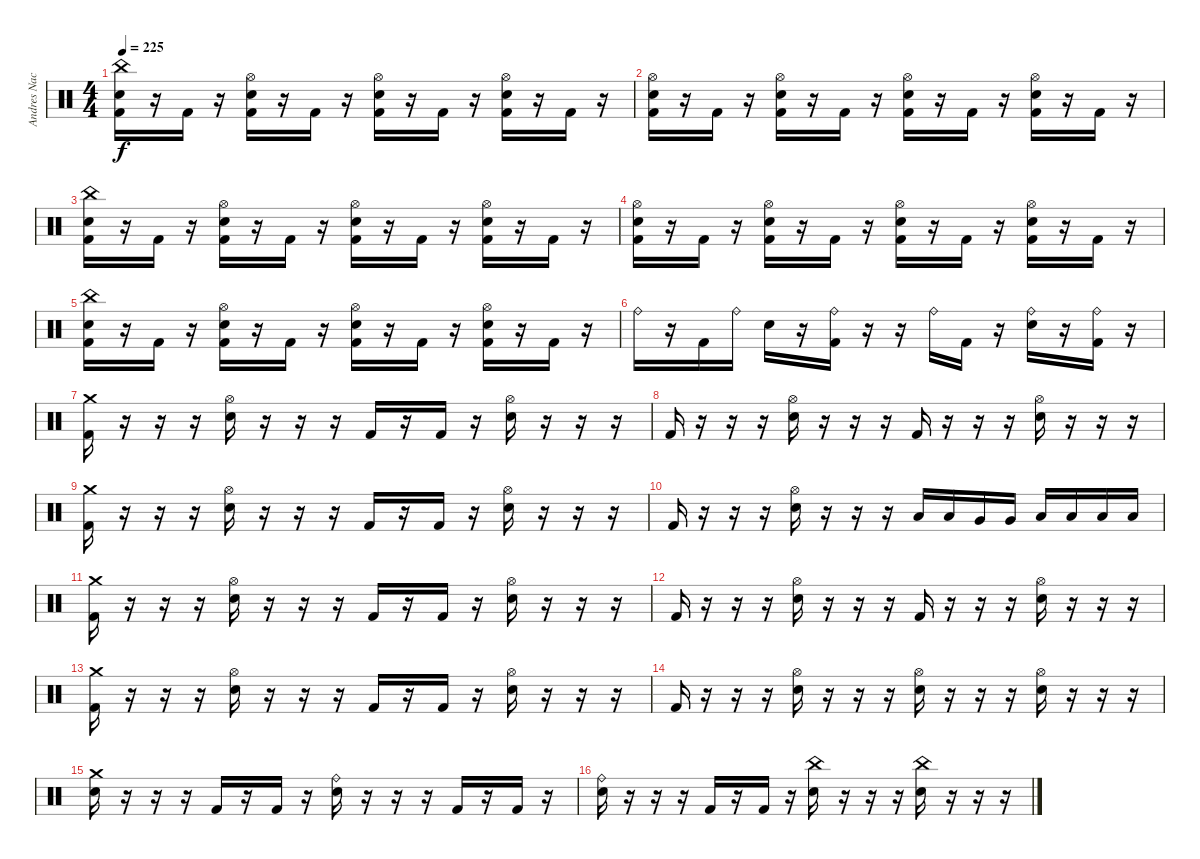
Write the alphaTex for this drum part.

\track ("Andres Nacrur" "Andres Nac") {instrument percussion}
\staff {score}
\articulation defaults
\ts (4 4)
\tempo 225
\clef neutral
\ks c
("China (hit)" "Snare (hit) 2" "Kick (hit) 2").16{dy f} r.16 "Kick (hit) 2".16 r.16 ("Hi-Hat (open)" "Snare (hit) 2" "Kick (hit) 2").16 r.16 "Kick (hit) 2".16 r.16 ("Hi-Hat (open)" "Snare (hit) 2" "Kick (hit) 2").16 r.16 "Kick (hit) 2".16 r.16 ("Hi-Hat (open)" "Snare (hit) 2" "Kick (hit) 2").16 r.16 "Kick (hit) 2".16 r.16 |
("Hi-Hat (open)" "Snare (hit) 2" "Kick (hit) 2").16 r.16 "Kick (hit) 2".16 r.16 ("Hi-Hat (open)" "Snare (hit) 2" "Kick (hit) 2").16 r.16 "Kick (hit) 2".16 r.16 ("Hi-Hat (open)" "Snare (hit) 2" "Kick (hit) 2").16 r.16 "Kick (hit) 2".16 r.16 ("Hi-Hat (open)" "Snare (hit) 2" "Kick (hit) 2").16 r.16 "Kick (hit) 2".16 r.16 |
("China (hit)" "Snare (hit) 2" "Kick (hit) 2").16 r.16 "Kick (hit) 2".16 r.16 ("Hi-Hat (open)" "Snare (hit) 2" "Kick (hit) 2").16 r.16 "Kick (hit) 2".16 r.16 ("Hi-Hat (open)" "Snare (hit) 2" "Kick (hit) 2").16 r.16 "Kick (hit) 2".16 r.16 ("Hi-Hat (open)" "Snare (hit) 2" "Kick (hit) 2").16 r.16 "Kick (hit) 2".16 r.16 |
("Hi-Hat (open)" "Snare (hit) 2" "Kick (hit) 2").16 r.16 "Kick (hit) 2".16 r.16 ("Hi-Hat (open)" "Snare (hit) 2" "Kick (hit) 2").16 r.16 "Kick (hit) 2".16 r.16 ("Hi-Hat (open)" "Snare (hit) 2" "Kick (hit) 2").16 r.16 "Kick (hit) 2".16 r.16 ("Hi-Hat (open)" "Snare (hit) 2" "Kick (hit) 2").16 r.16 "Kick (hit) 2".16 r.16 |
("China (hit)" "Snare (hit) 2" "Kick (hit) 2").16 r.16 "Kick (hit) 2".16 r.16 ("Hi-Hat (open)" "Snare (hit) 2" "Kick (hit) 2").16 r.16 "Kick (hit) 2".16 r.16 ("Hi-Hat (open)" "Snare (hit) 2" "Kick (hit) 2").16 r.16 "Kick (hit) 2".16 r.16 ("Hi-Hat (open)" "Snare (hit) 2" "Kick (hit) 2").16 r.16 "Kick (hit) 2".16 r.16 |
"Ride (bell)".16 r.16 "Kick (hit) 2".16 "Ride (bell)".16 "Snare (hit) 2".16 r.16 ("Ride (bell)" "Kick (hit) 2").16 r.16 r.16 "Ride (bell)".16 "Kick (hit) 2".16 r.16 ("Ride (bell)" "Snare (hit) 2").16 r.16 ("Ride (bell)" "Kick (hit) 2").16 r.16 |
("Crash medium (hit)" "Kick (hit) 2").16 r.16 r.16 r.16 ("Hi-Hat (open)" "Snare (hit) 2").16 r.16 r.16 r.16 "Kick (hit) 2".16 r.16 "Kick (hit) 2".16 r.16 ("Hi-Hat (open)" "Snare (hit) 2").16 r.16 r.16 r.16 |
"Kick (hit) 2".16 r.16 r.16 r.16 ("Hi-Hat (open)" "Snare (hit) 2").16 r.16 r.16 r.16 "Kick (hit) 2".16 r.16 r.16 r.16 ("Hi-Hat (open)" "Snare (hit) 2").16 r.16 r.16 r.16 |
("Crash medium (hit)" "Kick (hit) 2").16 r.16 r.16 r.16 ("Hi-Hat (open)" "Snare (hit) 2").16 r.16 r.16 r.16 "Kick (hit) 2".16 r.16 "Kick (hit) 2".16 r.16 ("Hi-Hat (open)" "Snare (hit) 2").16 r.16 r.16 r.16 |
"Kick (hit) 2".16 r.16 r.16 r.16 ("Hi-Hat (open)" "Snare (hit) 2").16 r.16 r.16 r.16 "Low Tom (hit)".16 "Low Tom (hit)".16 "Very Low Tom (hit)".16 "Very Low Tom (hit)".16 "Low Floor Tom (hit)".16 "Low Floor Tom (hit)".16 "Low Floor Tom (hit)".16 "Low Floor Tom (hit)".16 |
("Crash medium (hit)" "Kick (hit) 2").16 r.16 r.16 r.16 ("Hi-Hat (open)" "Snare (hit) 2").16 r.16 r.16 r.16 "Kick (hit) 2".16 r.16 "Kick (hit) 2".16 r.16 ("Hi-Hat (open)" "Snare (hit) 2").16 r.16 r.16 r.16 |
"Kick (hit) 2".16 r.16 r.16 r.16 ("Hi-Hat (open)" "Snare (hit) 2").16 r.16 r.16 r.16 "Kick (hit) 2".16 r.16 r.16 r.16 ("Hi-Hat (open)" "Snare (hit) 2").16 r.16 r.16 r.16 |
("Crash medium (hit)" "Kick (hit) 2").16 r.16 r.16 r.16 ("Hi-Hat (open)" "Snare (hit) 2").16 r.16 r.16 r.16 "Kick (hit) 2".16 r.16 "Kick (hit) 2".16 r.16 ("Hi-Hat (open)" "Snare (hit) 2").16 r.16 r.16 r.16 |
"Kick (hit) 2".16 r.16 r.16 r.16 ("Hi-Hat (open)" "Snare (hit) 2").16 r.16 r.16 r.16 ("Hi-Hat (open)" "Snare (hit) 2").16 r.16 r.16 r.16 ("Hi-Hat (open)" "Snare (hit) 2").16 r.16 r.16 r.16 |
("Crash medium (hit)" "Snare (hit) 2").16 r.16 r.16 r.16 "Kick (hit) 2".16 r.16 "Kick (hit) 2".16 r.16 ("Ride (bell)" "Snare (hit) 2").16 r.16 r.16 r.16 "Kick (hit) 2".16 r.16 "Kick (hit) 2".16 r.16 |
("Ride (bell)" "Snare (hit) 2").16 r.16 r.16 r.16 "Kick (hit) 2".16 r.16 "Kick (hit) 2".16 r.16 ("China (hit)" "Snare (hit) 2").16 r.16 r.16 r.16 ("China (hit)" "Snare (hit) 2").16 r.16 r.16 r.16
